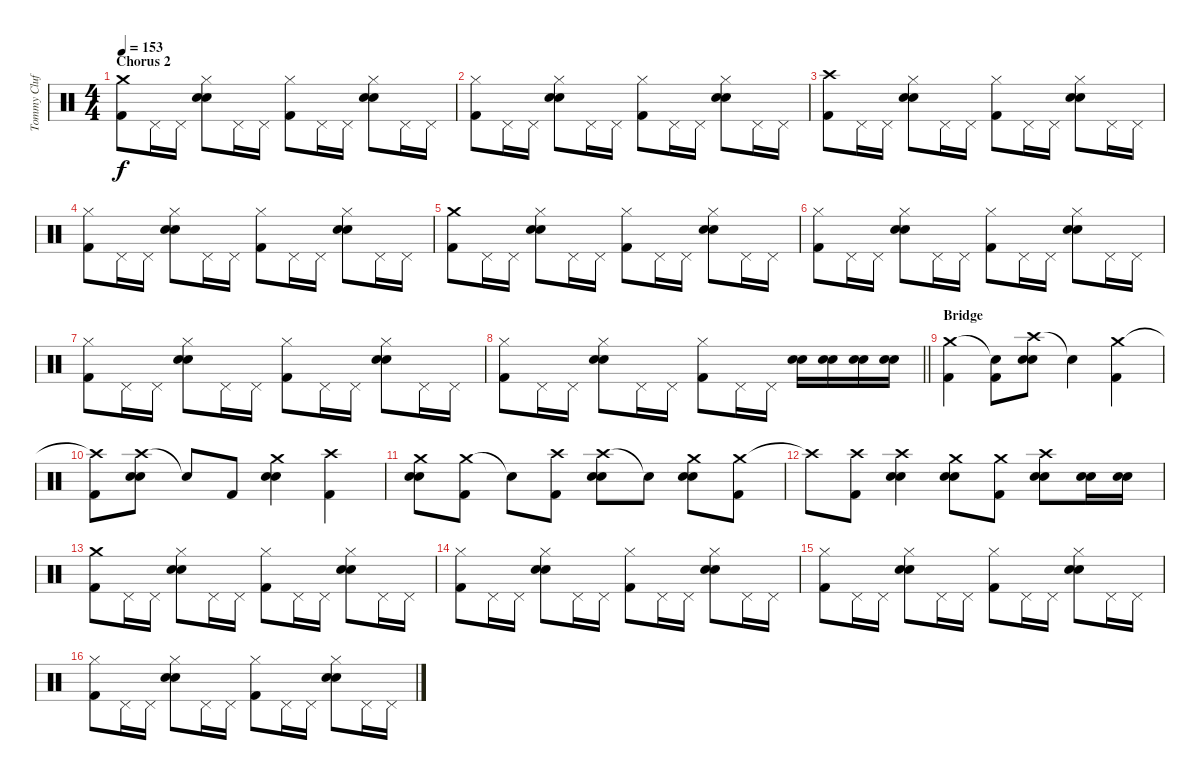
\track ("Tommy Clufetos" "Tommy Cluf") {instrument percussion}
\staff {score}
\articulation defaults
\ts (4 4)
\section ("" "Chorus 2")
\tempo 153
\clef neutral
\ks c
("Crash medium (hit)" "Kick (hit) 2").8{dy f} "Pedal Hi-Hat (hit)".16 "Pedal Hi-Hat (hit)".16 ("Hi-Hat (closed)" "Electric Snare (hit)" "Snare (hit) 2").8 "Pedal Hi-Hat (hit)".16 "Pedal Hi-Hat (hit)".16 ("Hi-Hat (closed)" "Kick (hit) 2").8 "Pedal Hi-Hat (hit)".16 "Pedal Hi-Hat (hit)".16 ("Hi-Hat (closed)" "Electric Snare (hit)" "Snare (hit) 2").8 "Pedal Hi-Hat (hit)".16 "Pedal Hi-Hat (hit)".16 |
("Hi-Hat (closed)" "Kick (hit) 2").8 "Pedal Hi-Hat (hit)".16 "Pedal Hi-Hat (hit)".16 ("Hi-Hat (closed)" "Electric Snare (hit)" "Snare (hit) 2").8 "Pedal Hi-Hat (hit)".16 "Pedal Hi-Hat (hit)".16 ("Hi-Hat (closed)" "Kick (hit) 2").8 "Pedal Hi-Hat (hit)".16 "Pedal Hi-Hat (hit)".16 ("Hi-Hat (closed)" "Electric Snare (hit)" "Snare (hit) 2").8 "Pedal Hi-Hat (hit)".16 "Pedal Hi-Hat (hit)".16 |
("Crash high (hit)" "Kick (hit) 2").8 "Pedal Hi-Hat (hit)".16 "Pedal Hi-Hat (hit)".16 ("Hi-Hat (closed)" "Electric Snare (hit)" "Snare (hit) 2").8 "Pedal Hi-Hat (hit)".16 "Pedal Hi-Hat (hit)".16 ("Hi-Hat (closed)" "Kick (hit) 2").8 "Pedal Hi-Hat (hit)".16 "Pedal Hi-Hat (hit)".16 ("Hi-Hat (closed)" "Electric Snare (hit)" "Snare (hit) 2").8 "Pedal Hi-Hat (hit)".16 "Pedal Hi-Hat (hit)".16 |
("Hi-Hat (closed)" "Kick (hit) 2").8 "Pedal Hi-Hat (hit)".16 "Pedal Hi-Hat (hit)".16 ("Hi-Hat (closed)" "Electric Snare (hit)" "Snare (hit) 2").8 "Pedal Hi-Hat (hit)".16 "Pedal Hi-Hat (hit)".16 ("Hi-Hat (closed)" "Kick (hit) 2").8 "Pedal Hi-Hat (hit)".16 "Pedal Hi-Hat (hit)".16 ("Hi-Hat (closed)" "Electric Snare (hit)" "Snare (hit) 2").8 "Pedal Hi-Hat (hit)".16 "Pedal Hi-Hat (hit)".16 |
("Crash medium (hit)" "Kick (hit) 2").8 "Pedal Hi-Hat (hit)".16 "Pedal Hi-Hat (hit)".16 ("Hi-Hat (closed)" "Electric Snare (hit)" "Snare (hit) 2").8 "Pedal Hi-Hat (hit)".16 "Pedal Hi-Hat (hit)".16 ("Hi-Hat (closed)" "Kick (hit) 2").8 "Pedal Hi-Hat (hit)".16 "Pedal Hi-Hat (hit)".16 ("Hi-Hat (closed)" "Electric Snare (hit)" "Snare (hit) 2").8 "Pedal Hi-Hat (hit)".16 "Pedal Hi-Hat (hit)".16 |
("Hi-Hat (closed)" "Kick (hit) 2").8 "Pedal Hi-Hat (hit)".16 "Pedal Hi-Hat (hit)".16 ("Hi-Hat (closed)" "Electric Snare (hit)" "Snare (hit) 2").8 "Pedal Hi-Hat (hit)".16 "Pedal Hi-Hat (hit)".16 ("Hi-Hat (closed)" "Kick (hit) 2").8 "Pedal Hi-Hat (hit)".16 "Pedal Hi-Hat (hit)".16 ("Hi-Hat (closed)" "Electric Snare (hit)" "Snare (hit) 2").8 "Pedal Hi-Hat (hit)".16 "Pedal Hi-Hat (hit)".16 |
("Hi-Hat (closed)" "Kick (hit) 2").8 "Pedal Hi-Hat (hit)".16 "Pedal Hi-Hat (hit)".16 ("Hi-Hat (closed)" "Electric Snare (hit)" "Snare (hit) 2").8 "Pedal Hi-Hat (hit)".16 "Pedal Hi-Hat (hit)".16 ("Hi-Hat (closed)" "Kick (hit) 2").8 "Pedal Hi-Hat (hit)".16 "Pedal Hi-Hat (hit)".16 ("Hi-Hat (closed)" "Electric Snare (hit)" "Snare (hit) 2").8 "Pedal Hi-Hat (hit)".16 "Pedal Hi-Hat (hit)".16 |
\barLineRight lightlight
("Hi-Hat (closed)" "Kick (hit) 2").8 "Pedal Hi-Hat (hit)".16 "Pedal Hi-Hat (hit)".16 ("Hi-Hat (closed)" "Electric Snare (hit)" "Snare (hit) 2").8 "Pedal Hi-Hat (hit)".16 "Pedal Hi-Hat (hit)".16 ("Hi-Hat (closed)" "Kick (hit) 2").8 "Pedal Hi-Hat (hit)".16 "Pedal Hi-Hat (hit)".16 ("Electric Snare (hit)" "Snare (hit) 2").16 ("Electric Snare (hit)" "Snare (hit) 2").16 ("Electric Snare (hit)" "Snare (hit) 2").16 ("Electric Snare (hit)" "Snare (hit) 2").16 |
\section ("" "Bridge")
("Crash medium (hit)" "Kick (hit) 2").4 ("Snare (hit)"{t} "Kick (hit) 2").8 ("Crash high (hit)" "Electric Snare (hit)" "Snare (hit) 2").8 "Snare (hit)"{t}.4 ("Crash medium (hit)" "Kick (hit) 2").4 |
("Crash high (hit)"{t} "Kick (hit) 2").8 ("Crash high (hit)" "Electric Snare (hit)" "Snare (hit) 2").8 "Snare (hit)"{t}.8 "Kick (hit) 2".8 ("Crash medium (hit)" "Electric Snare (hit)" "Snare (hit) 2").4 ("Crash high (hit)" "Kick (hit) 2").4 |
("Crash medium (hit)" "Electric Snare (hit)" "Snare (hit) 2").8 ("Crash medium (hit)" "Kick (hit) 2").8 "Snare (hit)"{t}.8 ("Crash high (hit)" "Kick (hit) 2").8 ("Crash high (hit)" "Electric Snare (hit)" "Snare (hit) 2").8 "Snare (hit)"{t}.8 ("Crash medium (hit)" "Electric Snare (hit)" "Snare (hit) 2").8 ("Crash medium (hit)" "Kick (hit) 2").8 |
"Crash high (hit)"{t}.8 ("Crash high (hit)" "Kick (hit) 2").8 ("Crash high (hit)" "Electric Snare (hit)" "Snare (hit) 2").4 ("Crash medium (hit)" "Electric Snare (hit)" "Snare (hit) 2").8 ("Crash medium (hit)" "Kick (hit) 2").8 ("Crash high (hit)" "Electric Snare (hit)" "Snare (hit) 2").8 ("Electric Snare (hit)" "Snare (hit) 2").16 ("Electric Snare (hit)" "Snare (hit) 2").16 |
("Crash medium (hit)" "Kick (hit) 2").8 "Pedal Hi-Hat (hit)".16 "Pedal Hi-Hat (hit)".16 ("Hi-Hat (closed)" "Electric Snare (hit)" "Snare (hit) 2").8 "Pedal Hi-Hat (hit)".16 "Pedal Hi-Hat (hit)".16 ("Hi-Hat (closed)" "Kick (hit) 2").8 "Pedal Hi-Hat (hit)".16 "Pedal Hi-Hat (hit)".16 ("Hi-Hat (closed)" "Electric Snare (hit)" "Snare (hit) 2").8 "Pedal Hi-Hat (hit)".16 "Pedal Hi-Hat (hit)".16 |
("Hi-Hat (closed)" "Kick (hit) 2").8 "Pedal Hi-Hat (hit)".16 "Pedal Hi-Hat (hit)".16 ("Hi-Hat (closed)" "Electric Snare (hit)" "Snare (hit) 2").8 "Pedal Hi-Hat (hit)".16 "Pedal Hi-Hat (hit)".16 ("Hi-Hat (closed)" "Kick (hit) 2").8 "Pedal Hi-Hat (hit)".16 "Pedal Hi-Hat (hit)".16 ("Hi-Hat (closed)" "Electric Snare (hit)" "Snare (hit) 2").8 "Pedal Hi-Hat (hit)".16 "Pedal Hi-Hat (hit)".16 |
("Hi-Hat (closed)" "Kick (hit) 2").8 "Pedal Hi-Hat (hit)".16 "Pedal Hi-Hat (hit)".16 ("Hi-Hat (closed)" "Electric Snare (hit)" "Snare (hit) 2").8 "Pedal Hi-Hat (hit)".16 "Pedal Hi-Hat (hit)".16 ("Hi-Hat (closed)" "Kick (hit) 2").8 "Pedal Hi-Hat (hit)".16 "Pedal Hi-Hat (hit)".16 ("Hi-Hat (closed)" "Electric Snare (hit)" "Snare (hit) 2").8 "Pedal Hi-Hat (hit)".16 "Pedal Hi-Hat (hit)".16 |
("Hi-Hat (closed)" "Kick (hit) 2").8 "Pedal Hi-Hat (hit)".16 "Pedal Hi-Hat (hit)".16 ("Hi-Hat (closed)" "Electric Snare (hit)" "Snare (hit) 2").8 "Pedal Hi-Hat (hit)".16 "Pedal Hi-Hat (hit)".16 ("Hi-Hat (closed)" "Kick (hit) 2").8 "Pedal Hi-Hat (hit)".16 "Pedal Hi-Hat (hit)".16 ("Hi-Hat (closed)" "Electric Snare (hit)" "Snare (hit) 2").8 "Pedal Hi-Hat (hit)".16 "Pedal Hi-Hat (hit)".16
